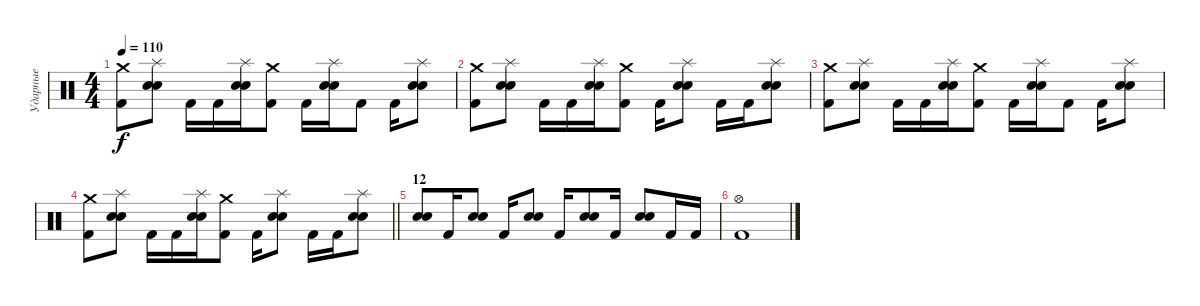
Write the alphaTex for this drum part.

\track ("Ударные" "Ударные") {instrument percussion}
\staff {score}
\articulation defaults
\ts (4 4)
\tempo 110
\clef neutral
\ks c
("Crash medium (hit)" "Kick (hit) 2").8{dy f} ("Splash (hit)" "Electric Snare (hit)" "Snare (hit) 2").8 "Kick (hit) 2".16 "Kick (hit) 2".16 ("Splash (hit)" "Electric Snare (hit)" "Snare (hit) 2").16 ("Crash medium (hit)" "Kick (hit) 2").8 "Kick (hit) 2".16 ("Splash (hit)" "Electric Snare (hit)" "Snare (hit) 2").16 "Kick (hit) 2".8 "Kick (hit) 2".16 ("Splash (hit)" "Electric Snare (hit)" "Snare (hit) 2").8 |
("Crash medium (hit)" "Kick (hit) 2").8 ("Splash (hit)" "Electric Snare (hit)" "Snare (hit) 2").8 "Kick (hit) 2".16 "Kick (hit) 2".16 ("Splash (hit)" "Electric Snare (hit)" "Snare (hit) 2").16 ("Crash medium (hit)" "Kick (hit) 2").8 "Kick (hit) 2".16 ("Splash (hit)" "Electric Snare (hit)" "Snare (hit) 2").8 "Kick (hit) 2".16 "Kick (hit) 2".16 ("Splash (hit)" "Electric Snare (hit)" "Snare (hit) 2").8 |
("Crash medium (hit)" "Kick (hit) 2").8 ("Splash (hit)" "Electric Snare (hit)" "Snare (hit) 2").8 "Kick (hit) 2".16 "Kick (hit) 2".16 ("Splash (hit)" "Electric Snare (hit)" "Snare (hit) 2").16 ("Crash medium (hit)" "Kick (hit) 2").8 "Kick (hit) 2".16 ("Splash (hit)" "Electric Snare (hit)" "Snare (hit) 2").16 "Kick (hit) 2".8 "Kick (hit) 2".16 ("Splash (hit)" "Electric Snare (hit)" "Snare (hit) 2").8 |
\barLineRight lightlight
("Crash medium (hit)" "Kick (hit) 2").8 ("Splash (hit)" "Electric Snare (hit)" "Snare (hit) 2").8 "Kick (hit) 2".16 "Kick (hit) 2".16 ("Splash (hit)" "Electric Snare (hit)" "Snare (hit) 2").16 ("Crash medium (hit)" "Kick (hit) 2").8 "Kick (hit) 2".16 ("Splash (hit)" "Electric Snare (hit)" "Snare (hit) 2").8 "Kick (hit) 2".16 "Kick (hit) 2".16 ("Splash (hit)" "Electric Snare (hit)" "Snare (hit) 2").8 |
\section ("" "12")
("Electric Snare (hit)" "Snare (hit) 2").8 "Kick (hit) 2".16 ("Electric Snare (hit)" "Snare (hit) 2").8 "Kick (hit) 2".16 ("Electric Snare (hit)" "Snare (hit) 2").8 "Kick (hit) 2".16 ("Electric Snare (hit)" "Snare (hit) 2").8 "Kick (hit) 2".16 ("Electric Snare (hit)" "Snare (hit) 2").8 "Kick (hit) 2".16 "Kick (hit) 2".16 |
("Hi-Hat (open)" "Kick (hit) 2").1
